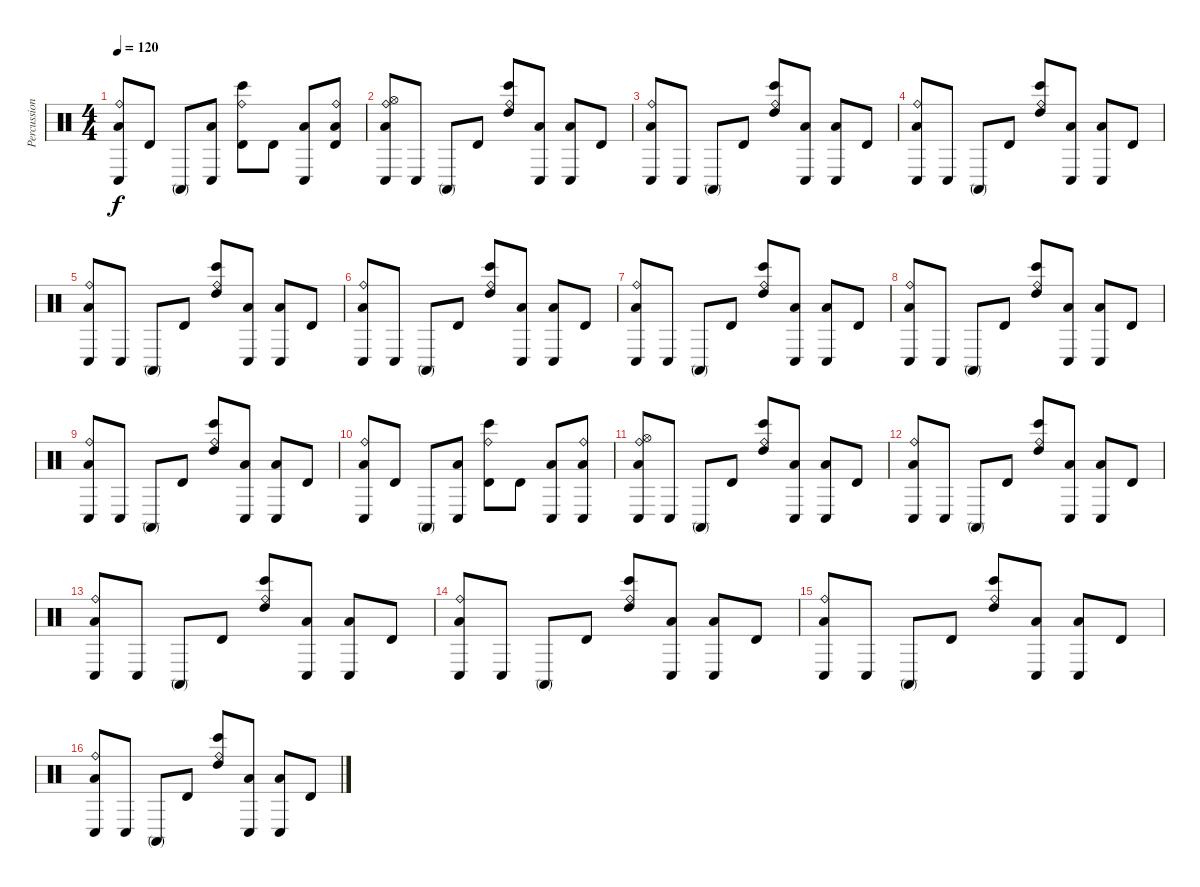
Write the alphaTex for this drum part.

\track ("Percussion" "Percussion") {instrument percussion}
\staff {score}
\articulation defaults
\ts (4 4)
\tempo 120
\clef neutral
\ks c
("Low Tom (hit)" "Conga low (hit)" "Ride (bell)").8{dy f} "Timbale high (hit)".8 "Conga high (mute)".8 ("Low Tom (hit)" "Conga low (hit)").8 ("Timbale high (hit)" "Bongo High (hit)" "Ride (bell)").8 "Timbale high (hit)".8 ("Low Tom (hit)" "Conga low (hit)").8 ("Low Tom (hit)" "Timbale high (hit)" "Ride (bell)").8 |
("Low Tom (hit)" "Conga low (hit)" "Ride (bell)" "Hi-Hat (open)").8 "Conga low (hit)".8 "Conga high (mute)".8 "Timbale high (hit)".8 ("High Tom (hit)" "Bongo High (hit)" "Ride (bell)").8 ("Low Tom (hit)" "Conga low (hit)").8 ("Low Tom (hit)" "Conga low (hit)").8 "Timbale high (hit)".8 |
("Low Tom (hit)" "Conga low (hit)" "Ride (bell)").8 "Conga low (hit)".8 "Conga high (mute)".8 "Timbale high (hit)".8 ("High Tom (hit)" "Bongo High (hit)" "Ride (bell)").8 ("Low Tom (hit)" "Conga low (hit)").8 ("Low Tom (hit)" "Conga low (hit)").8 "Timbale high (hit)".8 |
("Low Tom (hit)" "Conga low (hit)" "Ride (bell)").8 "Conga low (hit)".8 "Conga high (mute)".8 "Timbale high (hit)".8 ("High Tom (hit)" "Bongo High (hit)" "Ride (bell)").8 ("Low Tom (hit)" "Conga low (hit)").8 ("Low Tom (hit)" "Conga low (hit)").8 "Timbale high (hit)".8 |
("Low Tom (hit)" "Conga low (hit)" "Ride (bell)").8 "Conga low (hit)".8 "Conga high (mute)".8 "Timbale high (hit)".8 ("High Tom (hit)" "Bongo High (hit)" "Ride (bell)").8 ("Low Tom (hit)" "Conga low (hit)").8 ("Low Tom (hit)" "Conga low (hit)").8 "Timbale high (hit)".8 |
("Low Tom (hit)" "Conga low (hit)" "Ride (bell)").8 "Conga low (hit)".8 "Conga high (mute)".8 "Timbale high (hit)".8 ("High Tom (hit)" "Bongo High (hit)" "Ride (bell)").8 ("Low Tom (hit)" "Conga low (hit)").8 ("Low Tom (hit)" "Conga low (hit)").8 "Timbale high (hit)".8 |
("Low Tom (hit)" "Conga low (hit)" "Ride (bell)").8 "Conga low (hit)".8 "Conga high (mute)".8 "Timbale high (hit)".8 ("High Tom (hit)" "Bongo High (hit)" "Ride (bell)").8 ("Low Tom (hit)" "Conga low (hit)").8 ("Low Tom (hit)" "Conga low (hit)").8 "Timbale high (hit)".8 |
("Low Tom (hit)" "Conga low (hit)" "Ride (bell)").8 "Conga low (hit)".8 "Conga high (mute)".8 "Timbale high (hit)".8 ("High Tom (hit)" "Bongo High (hit)" "Ride (bell)").8 ("Low Tom (hit)" "Conga low (hit)").8 ("Low Tom (hit)" "Conga low (hit)").8 "Timbale high (hit)".8 |
("Low Tom (hit)" "Conga low (hit)" "Ride (bell)").8 "Conga low (hit)".8 "Conga high (mute)".8 "Timbale high (hit)".8 ("High Tom (hit)" "Bongo High (hit)" "Ride (bell)").8 ("Low Tom (hit)" "Conga low (hit)").8 ("Low Tom (hit)" "Conga low (hit)").8 "Timbale high (hit)".8 |
("Low Tom (hit)" "Conga low (hit)" "Ride (bell)").8 "Timbale high (hit)".8 "Conga high (mute)".8 ("Low Tom (hit)" "Conga low (hit)").8 ("Timbale high (hit)" "Bongo High (hit)" "Ride (bell)").8 "Timbale high (hit)".8 ("Low Tom (hit)" "Conga low (hit)").8 ("Low Tom (hit)" "Conga low (hit)" "Ride (bell)").8 |
("Low Tom (hit)" "Conga low (hit)" "Ride (bell)" "Hi-Hat (open)").8 "Conga low (hit)".8 "Conga high (mute)".8 "Timbale high (hit)".8 ("High Tom (hit)" "Bongo High (hit)" "Ride (bell)").8 ("Low Tom (hit)" "Conga low (hit)").8 ("Low Tom (hit)" "Conga low (hit)").8 "Timbale high (hit)".8 |
("Low Tom (hit)" "Conga low (hit)" "Ride (bell)").8 "Conga low (hit)".8 "Conga high (mute)".8 "Timbale high (hit)".8 ("High Tom (hit)" "Bongo High (hit)" "Ride (bell)").8 ("Low Tom (hit)" "Conga low (hit)").8 ("Low Tom (hit)" "Conga low (hit)").8 "Timbale high (hit)".8 |
("Low Tom (hit)" "Conga low (hit)" "Ride (bell)").8 "Conga low (hit)".8 "Conga high (mute)".8 "Timbale high (hit)".8 ("High Tom (hit)" "Bongo High (hit)" "Ride (bell)").8 ("Low Tom (hit)" "Conga low (hit)").8 ("Low Tom (hit)" "Conga low (hit)").8 "Timbale high (hit)".8 |
("Low Tom (hit)" "Conga low (hit)" "Ride (bell)").8 "Conga low (hit)".8 "Conga high (mute)".8 "Timbale high (hit)".8 ("High Tom (hit)" "Bongo High (hit)" "Ride (bell)").8 ("Low Tom (hit)" "Conga low (hit)").8 ("Low Tom (hit)" "Conga low (hit)").8 "Timbale high (hit)".8 |
("Low Tom (hit)" "Conga low (hit)" "Ride (bell)").8 "Conga low (hit)".8 "Conga high (mute)".8 "Timbale high (hit)".8 ("High Tom (hit)" "Bongo High (hit)" "Ride (bell)").8 ("Low Tom (hit)" "Conga low (hit)").8 ("Low Tom (hit)" "Conga low (hit)").8 "Timbale high (hit)".8 |
("Low Tom (hit)" "Conga low (hit)" "Ride (bell)").8 "Conga low (hit)".8 "Conga high (mute)".8 "Timbale high (hit)".8 ("High Tom (hit)" "Bongo High (hit)" "Ride (bell)").8 ("Low Tom (hit)" "Conga low (hit)").8 ("Low Tom (hit)" "Conga low (hit)").8 "Timbale high (hit)".8
